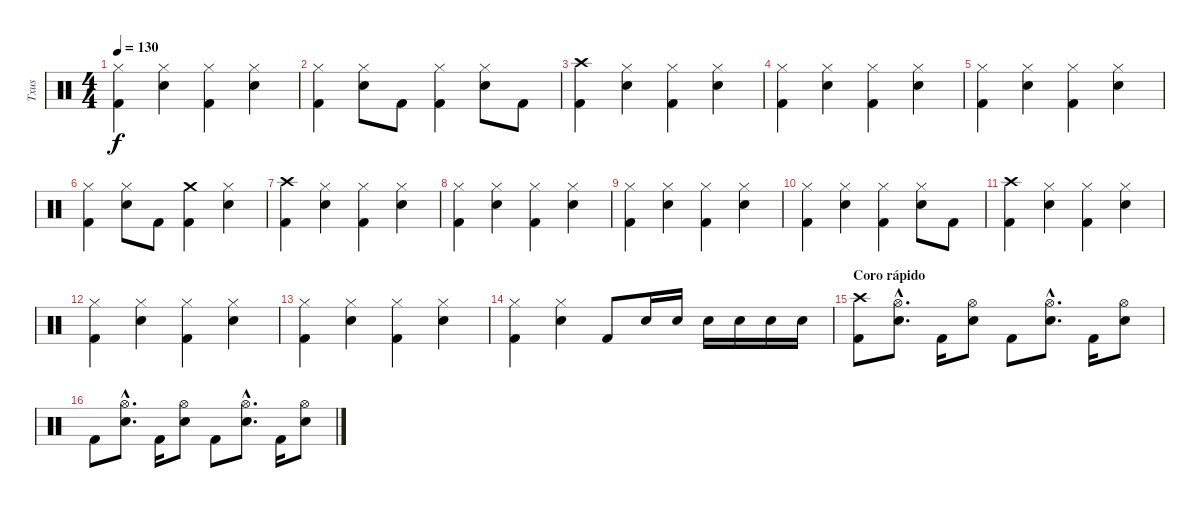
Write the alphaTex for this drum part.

\track ("Txus" "Txus") {instrument percussion}
\staff {score}
\articulation defaults
\ts (4 4)
\tempo 130
\clef neutral
\ks c
("Kick (hit) 2" "Hi-Hat (closed)").4{dy f} ("Electric Snare (hit)" "Hi-Hat (closed)").4 ("Kick (hit) 2" "Hi-Hat (closed)").4 ("Electric Snare (hit)" "Hi-Hat (closed)").4 |
("Kick (hit) 2" "Hi-Hat (closed)").4 ("Electric Snare (hit)" "Hi-Hat (closed)").8 "Kick (hit) 2".8 ("Kick (hit) 2" "Hi-Hat (closed)").4 ("Electric Snare (hit)" "Hi-Hat (closed)").8 "Kick (hit) 2".8 |
("Kick (hit) 2" "Crash high (hit)").4 ("Electric Snare (hit)" "Hi-Hat (closed)").4 ("Kick (hit) 2" "Hi-Hat (closed)").4 ("Electric Snare (hit)" "Hi-Hat (closed)").4 |
("Kick (hit) 2" "Hi-Hat (closed)").4 ("Electric Snare (hit)" "Hi-Hat (closed)").4 ("Kick (hit) 2" "Hi-Hat (closed)").4 ("Electric Snare (hit)" "Hi-Hat (closed)").4 |
("Kick (hit) 2" "Hi-Hat (closed)").4 ("Electric Snare (hit)" "Hi-Hat (closed)").4 ("Kick (hit) 2" "Hi-Hat (closed)").4 ("Electric Snare (hit)" "Hi-Hat (closed)").4 |
("Kick (hit) 2" "Hi-Hat (closed)").4 ("Electric Snare (hit)" "Hi-Hat (closed)").8 "Kick (hit) 2".8 ("Kick (hit) 2" "Crash medium (hit)").4 ("Electric Snare (hit)" "Hi-Hat (closed)").4 |
("Kick (hit) 2" "Crash high (hit)").4 ("Electric Snare (hit)" "Hi-Hat (closed)").4 ("Kick (hit) 2" "Hi-Hat (closed)").4 ("Electric Snare (hit)" "Hi-Hat (closed)").4 |
("Kick (hit) 2" "Hi-Hat (closed)").4 ("Electric Snare (hit)" "Hi-Hat (closed)").4 ("Kick (hit) 2" "Hi-Hat (closed)").4 ("Electric Snare (hit)" "Hi-Hat (closed)").4 |
("Kick (hit) 2" "Hi-Hat (closed)").4 ("Electric Snare (hit)" "Hi-Hat (closed)").4 ("Kick (hit) 2" "Hi-Hat (closed)").4 ("Electric Snare (hit)" "Hi-Hat (closed)").4 |
("Kick (hit) 2" "Hi-Hat (closed)").4 ("Electric Snare (hit)" "Hi-Hat (closed)").4 ("Kick (hit) 2" "Hi-Hat (closed)").4 ("Electric Snare (hit)" "Hi-Hat (closed)").8 "Kick (hit) 2".8 |
("Kick (hit) 2" "Crash high (hit)").4 ("Electric Snare (hit)" "Hi-Hat (closed)").4 ("Kick (hit) 2" "Hi-Hat (closed)").4 ("Electric Snare (hit)" "Hi-Hat (closed)").4 |
("Kick (hit) 2" "Hi-Hat (closed)").4 ("Electric Snare (hit)" "Hi-Hat (closed)").4 ("Kick (hit) 2" "Hi-Hat (closed)").4 ("Electric Snare (hit)" "Hi-Hat (closed)").4 |
("Kick (hit) 2" "Hi-Hat (closed)").4 ("Electric Snare (hit)" "Hi-Hat (closed)").4 ("Kick (hit) 2" "Hi-Hat (closed)").4 ("Electric Snare (hit)" "Hi-Hat (closed)").4 |
("Kick (hit) 2" "Hi-Hat (closed)").4 ("Electric Snare (hit)" "Hi-Hat (closed)").4 "Kick (hit) 2".8 "Electric Snare (hit)".16 "Electric Snare (hit)".16 "Electric Snare (hit)".16 "Electric Snare (hit)".16 "Electric Snare (hit)".16 "Electric Snare (hit)".16 |
\section ("" "Coro rápido")
("Kick (hit) 2" "Crash high (hit)").8 ("Electric Snare (hit)"{hac} "Hi-Hat (open)"{hac}).8{d} "Kick (hit) 2".16 ("Electric Snare (hit)" "Hi-Hat (open)").8 "Kick (hit) 2".8 ("Electric Snare (hit)"{hac} "Hi-Hat (open)"{hac}).8{d} "Kick (hit) 2".16 ("Electric Snare (hit)" "Hi-Hat (open)").8 |
"Kick (hit) 2".8 ("Electric Snare (hit)"{hac} "Hi-Hat (open)"{hac}).8{d} "Kick (hit) 2".16 ("Electric Snare (hit)" "Hi-Hat (open)").8 "Kick (hit) 2".8 ("Electric Snare (hit)"{hac} "Hi-Hat (open)"{hac}).8{d} "Kick (hit) 2".16 ("Electric Snare (hit)" "Hi-Hat (open)").8
